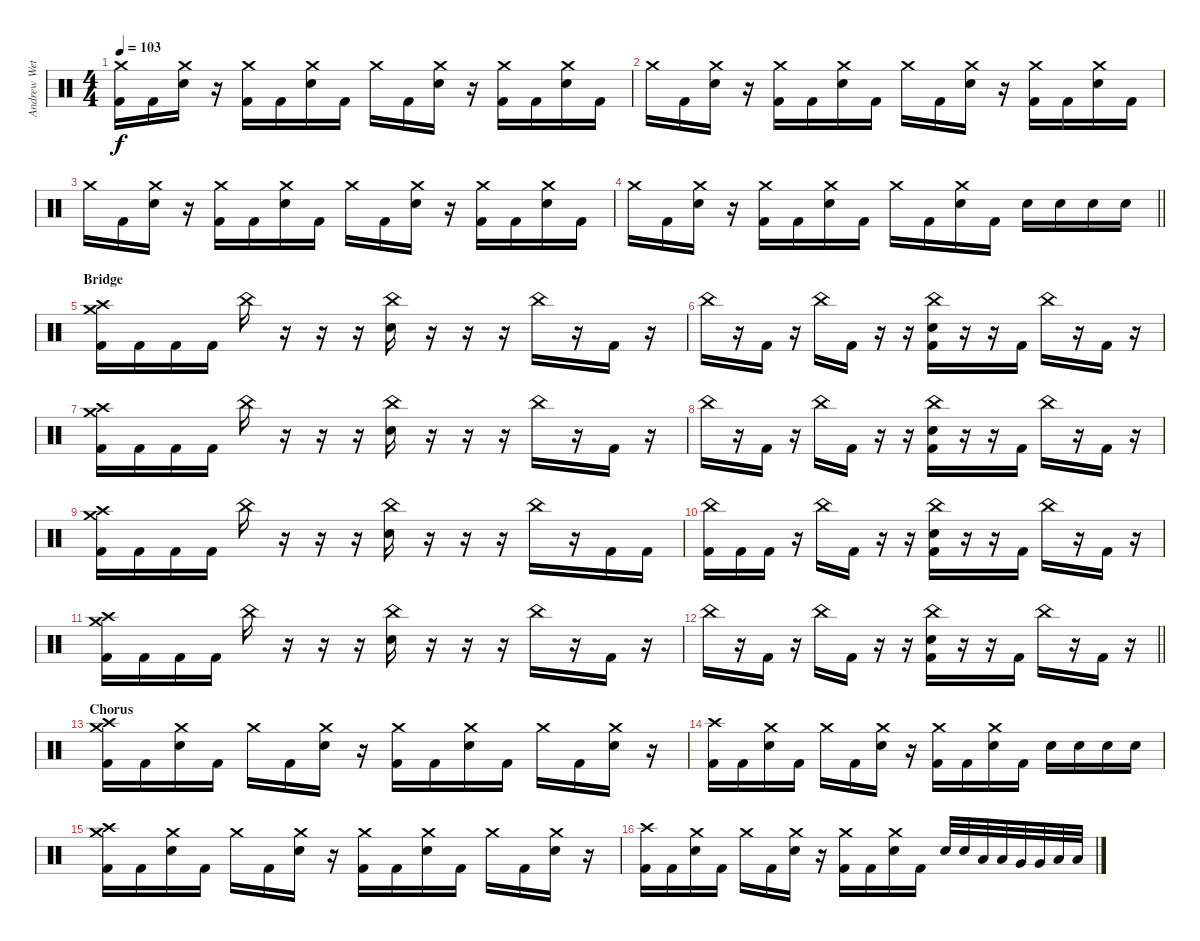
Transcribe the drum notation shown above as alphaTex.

\track ("Andrew Wetzel - Drums" "Andrew Wet") {instrument percussion}
\staff {score}
\articulation defaults
\ts (4 4)
\tempo 103
\clef neutral
\ks c
("Crash medium (hit)" "Kick (hit) 2").16{dy f} "Kick (hit) 2".16 ("Crash medium (hit)" "Electric Snare (hit)").16 r.16 ("Crash medium (hit)" "Kick (hit) 2").16 "Kick (hit) 2".16 ("Crash medium (hit)" "Electric Snare (hit)").16 "Kick (hit) 2".16 "Crash medium (hit)".16 "Kick (hit) 2".16 ("Crash medium (hit)" "Electric Snare (hit)").16 r.16 ("Crash medium (hit)" "Kick (hit) 2").16 "Kick (hit) 2".16 ("Crash medium (hit)" "Electric Snare (hit)").16 "Kick (hit) 2".16 |
"Crash medium (hit)".16 "Kick (hit) 2".16 ("Crash medium (hit)" "Electric Snare (hit)").16 r.16 ("Crash medium (hit)" "Kick (hit) 2").16 "Kick (hit) 2".16 ("Crash medium (hit)" "Electric Snare (hit)").16 "Kick (hit) 2".16 "Crash medium (hit)".16 "Kick (hit) 2".16 ("Crash medium (hit)" "Electric Snare (hit)").16 r.16 ("Crash medium (hit)" "Kick (hit) 2").16 "Kick (hit) 2".16 ("Crash medium (hit)" "Electric Snare (hit)").16 "Kick (hit) 2".16 |
"Crash medium (hit)".16 "Kick (hit) 2".16 ("Crash medium (hit)" "Electric Snare (hit)").16 r.16 ("Crash medium (hit)" "Kick (hit) 2").16 "Kick (hit) 2".16 ("Crash medium (hit)" "Electric Snare (hit)").16 "Kick (hit) 2".16 "Crash medium (hit)".16 "Kick (hit) 2".16 ("Crash medium (hit)" "Electric Snare (hit)").16 r.16 ("Crash medium (hit)" "Kick (hit) 2").16 "Kick (hit) 2".16 ("Crash medium (hit)" "Electric Snare (hit)").16 "Kick (hit) 2".16 |
\barLineRight lightlight "Crash medium (hit)".16 "Kick (hit) 2".16
("Crash medium (hit)" "Electric Snare (hit)").16 r.16 ("Crash medium (hit)" "Kick (hit) 2").16 "Kick (hit) 2".16 ("Crash medium (hit)" "Electric Snare (hit)").16 "Kick (hit) 2".16 "Crash medium (hit)".16 "Kick (hit) 2".16 ("Crash medium (hit)" "Electric Snare (hit)").16 "Kick (hit) 2".16 "Electric Snare (hit)".16 "Electric Snare (hit)".16 "Electric Snare (hit)".16 "Electric Snare (hit)".16 |
\section ("" "Bridge")
("Crash high (hit)" "Crash medium (hit)" "Kick (hit) 2").16 "Kick (hit) 2".16 "Kick (hit) 2".16 "Kick (hit) 2".16 "China (hit)".16 r.16 r.16 r.16 ("China (hit)" "Electric Snare (hit)").16 r.16 r.16 r.16 "China (hit)".16 r.16 "Kick (hit) 2".16 r.16 |
"China (hit)".16 r.16 "Kick (hit) 2".16 r.16 "China (hit)".16 "Kick (hit) 2".16 r.16 r.16 ("China (hit)" "Electric Snare (hit)" "Kick (hit) 2").16 r.16 r.16 "Kick (hit) 2".16 "China (hit)".16 r.16 "Kick (hit) 2".16 r.16 |
("Crash high (hit)" "Crash medium (hit)" "Kick (hit) 2").16 "Kick (hit) 2".16 "Kick (hit) 2".16 "Kick (hit) 2".16 "China (hit)".16 r.16 r.16 r.16 ("China (hit)" "Electric Snare (hit)").16 r.16 r.16 r.16 "China (hit)".16 r.16 "Kick (hit) 2".16 r.16 |
"China (hit)".16 r.16 "Kick (hit) 2".16 r.16 "China (hit)".16 "Kick (hit) 2".16 r.16 r.16 ("China (hit)" "Electric Snare (hit)" "Kick (hit) 2").16 r.16 r.16 "Kick (hit) 2".16 "China (hit)".16 r.16 "Kick (hit) 2".16 r.16 |
("Crash high (hit)" "Crash medium (hit)" "Kick (hit) 2").16 "Kick (hit) 2".16 "Kick (hit) 2".16 "Kick (hit) 2".16 "China (hit)".16 r.16 r.16 r.16 ("China (hit)" "Electric Snare (hit)").16 r.16 r.16 r.16 "China (hit)".16 r.16 "Kick (hit) 2".16 "Kick (hit) 2".16 |
("China (hit)" "Kick (hit) 2").16 "Kick (hit) 2".16 "Kick (hit) 2".16 r.16 "China (hit)".16 "Kick (hit) 2".16 r.16 r.16 ("China (hit)" "Electric Snare (hit)" "Kick (hit) 2").16 r.16 r.16 "Kick (hit) 2".16 "China (hit)".16 r.16 "Kick (hit) 2".16 r.16 |
("Crash high (hit)" "Crash medium (hit)" "Kick (hit) 2").16 "Kick (hit) 2".16 "Kick (hit) 2".16 "Kick (hit) 2".16 "China (hit)".16 r.16 r.16 r.16 ("China (hit)" "Electric Snare (hit)").16 r.16 r.16 r.16 "China (hit)".16 r.16 "Kick (hit) 2".16 r.16 |
\barLineRight lightlight "China (hit)".16
r.16 "Kick (hit) 2".16 r.16 "China (hit)".16 "Kick (hit) 2".16 r.16 r.16 ("China (hit)" "Electric Snare (hit)" "Kick (hit) 2").16 r.16 r.16 "Kick (hit) 2".16 "China (hit)".16 r.16 "Kick (hit) 2".16 r.16 |
\section ("" "Chorus")
("Crash high (hit)" "Crash medium (hit)" "Kick (hit) 2").16 "Kick (hit) 2".16 ("Crash medium (hit)" "Electric Snare (hit)").16 "Kick (hit) 2".16 "Crash medium (hit)".16 "Kick (hit) 2".16 ("Crash medium (hit)" "Electric Snare (hit)").16 r.16 ("Crash medium (hit)" "Kick (hit) 2").16 "Kick (hit) 2".16 ("Crash medium (hit)" "Electric Snare (hit)").16 "Kick (hit) 2".16 "Crash medium (hit)".16 "Kick (hit) 2".16 ("Crash medium (hit)" "Electric Snare (hit)").16 r.16 |
("Crash high (hit)" "Kick (hit) 2").16 "Kick (hit) 2".16 ("Crash medium (hit)" "Electric Snare (hit)").16 "Kick (hit) 2".16 "Crash medium (hit)".16 "Kick (hit) 2".16 ("Crash medium (hit)" "Electric Snare (hit)").16 r.16 ("Crash medium (hit)" "Kick (hit) 2").16 "Kick (hit) 2".16 ("Crash medium (hit)" "Electric Snare (hit)").16 "Kick (hit) 2".16 "Electric Snare (hit)".16 "Electric Snare (hit)".16 "Electric Snare (hit)".16 "Electric Snare (hit)".16 |
("Crash high (hit)" "Crash medium (hit)" "Kick (hit) 2").16 "Kick (hit) 2".16 ("Crash medium (hit)" "Electric Snare (hit)").16 "Kick (hit) 2".16 "Crash medium (hit)".16 "Kick (hit) 2".16 ("Crash medium (hit)" "Electric Snare (hit)").16 r.16 ("Crash medium (hit)" "Kick (hit) 2").16 "Kick (hit) 2".16 ("Crash medium (hit)" "Electric Snare (hit)").16 "Kick (hit) 2".16 "Crash medium (hit)".16 "Kick (hit) 2".16 ("Crash medium (hit)" "Electric Snare (hit)").16 r.16 |
("Crash high (hit)" "Kick (hit) 2").16 "Kick (hit) 2".16 ("Crash medium (hit)" "Electric Snare (hit)").16 "Kick (hit) 2".16 "Crash medium (hit)".16 "Kick (hit) 2".16 ("Crash medium (hit)" "Electric Snare (hit)").16 r.16 ("Crash medium (hit)" "Kick (hit) 2").16 "Kick (hit) 2".16 ("Crash medium (hit)" "Electric Snare (hit)").16 "Kick (hit) 2".16 "Electric Snare (hit)".32 "Electric Snare (hit)".32 "Low Tom (hit)".32 "Low Tom (hit)".32 "Very Low Tom (hit)".32 "Very Low Tom (hit)".32 "Low Tom (hit)".32 "Low Tom (hit)".32
